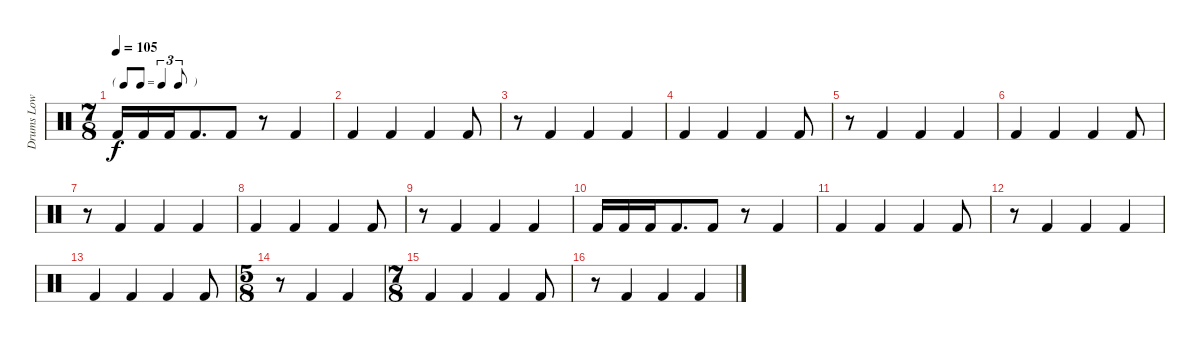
\track ("Drums Low" "Drums Low") {instrument percussion}
\staff {score}
\articulation defaults
\ts (7 8)
\tf triplet8th
\tempo 105
\clef neutral
\ks c "Kick (hit) 2".16{dy f} "Kick (hit) 2".16 "Kick (hit) 2".16 "Kick (hit) 2".8{d} "Kick (hit) 2".8
r.8 "Kick (hit) 2".4 |
"Kick (hit) 2".4 "Kick (hit) 2".4 "Kick (hit) 2".4 "Kick (hit) 2".8 |
r.8 "Kick (hit) 2".4 "Kick (hit) 2".4 "Kick (hit) 2".4 |
"Kick (hit) 2".4 "Kick (hit) 2".4 "Kick (hit) 2".4 "Kick (hit) 2".8 |
r.8 "Kick (hit) 2".4 "Kick (hit) 2".4 "Kick (hit) 2".4 |
"Kick (hit) 2".4 "Kick (hit) 2".4 "Kick (hit) 2".4 "Kick (hit) 2".8 |
r.8 "Kick (hit) 2".4 "Kick (hit) 2".4 "Kick (hit) 2".4 |
"Kick (hit) 2".4 "Kick (hit) 2".4 "Kick (hit) 2".4 "Kick (hit) 2".8 |
r.8 "Kick (hit) 2".4 "Kick (hit) 2".4 "Kick (hit) 2".4 |
"Kick (hit) 2".16 "Kick (hit) 2".16 "Kick (hit) 2".16 "Kick (hit) 2".8{d} "Kick (hit) 2".8 r.8 "Kick (hit) 2".4 |
"Kick (hit) 2".4 "Kick (hit) 2".4 "Kick (hit) 2".4 "Kick (hit) 2".8 |
r.8 "Kick (hit) 2".4 "Kick (hit) 2".4 "Kick (hit) 2".4 |
"Kick (hit) 2".4 "Kick (hit) 2".4 "Kick (hit) 2".4 "Kick (hit) 2".8 |
\ts (5 8)
r.8 "Kick (hit) 2".4 "Kick (hit) 2".4 |
\ts (7 8)
"Kick (hit) 2".4 "Kick (hit) 2".4 "Kick (hit) 2".4 "Kick (hit) 2".8 |
r.8 "Kick (hit) 2".4 "Kick (hit) 2".4 "Kick (hit) 2".4
